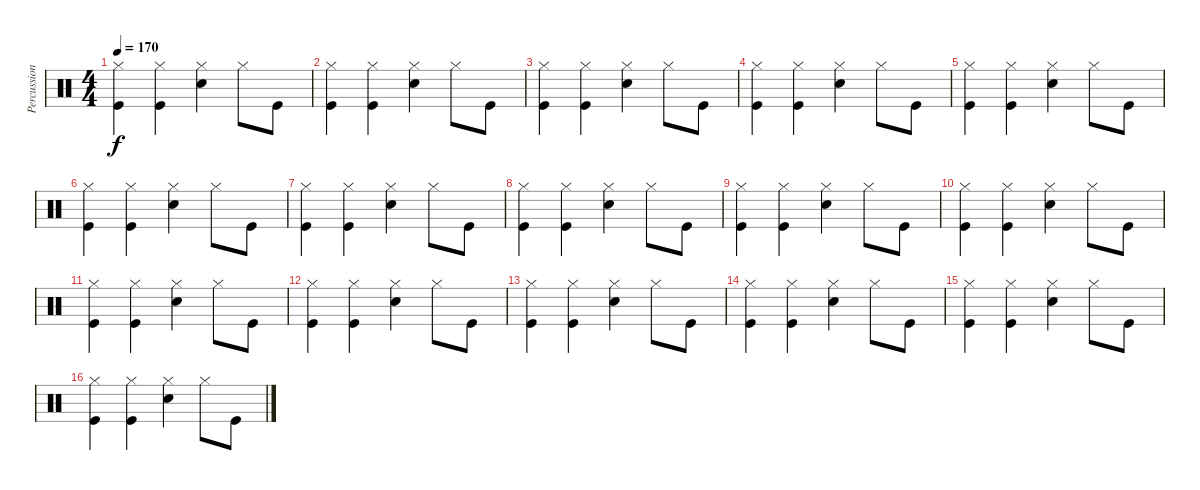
\track ("Percussion" "Percussion") {instrument percussion}
\staff {score}
\articulation defaults
\ts (4 4)
\tempo 170
\clef neutral
\ks c
("Hi-Hat (closed)" "Kick (hit)").4{dy f} ("Hi-Hat (closed)" "Kick (hit)").4 ("Hi-Hat (closed)" "Snare (hit) 2").4 "Hi-Hat (closed)".8 "Kick (hit)".8 |
("Hi-Hat (closed)" "Kick (hit)").4 ("Hi-Hat (closed)" "Kick (hit)").4 ("Hi-Hat (closed)" "Snare (hit) 2").4 "Hi-Hat (closed)".8 "Kick (hit)".8 |
("Hi-Hat (closed)" "Kick (hit)").4 ("Hi-Hat (closed)" "Kick (hit)").4 ("Hi-Hat (closed)" "Snare (hit) 2").4 "Hi-Hat (closed)".8 "Kick (hit)".8 |
("Hi-Hat (closed)" "Kick (hit)").4 ("Hi-Hat (closed)" "Kick (hit)").4 ("Hi-Hat (closed)" "Snare (hit) 2").4 "Hi-Hat (closed)".8 "Kick (hit)".8 |
("Hi-Hat (closed)" "Kick (hit)").4 ("Hi-Hat (closed)" "Kick (hit)").4 ("Hi-Hat (closed)" "Snare (hit) 2").4 "Hi-Hat (closed)".8 "Kick (hit)".8 |
("Hi-Hat (closed)" "Kick (hit)").4 ("Hi-Hat (closed)" "Kick (hit)").4 ("Hi-Hat (closed)" "Snare (hit) 2").4 "Hi-Hat (closed)".8 "Kick (hit)".8 |
("Hi-Hat (closed)" "Kick (hit)").4 ("Hi-Hat (closed)" "Kick (hit)").4 ("Hi-Hat (closed)" "Snare (hit) 2").4 "Hi-Hat (closed)".8 "Kick (hit)".8 |
("Hi-Hat (closed)" "Kick (hit)").4 ("Hi-Hat (closed)" "Kick (hit)").4 ("Hi-Hat (closed)" "Snare (hit) 2").4 "Hi-Hat (closed)".8 "Kick (hit)".8 |
("Hi-Hat (closed)" "Kick (hit)").4 ("Hi-Hat (closed)" "Kick (hit)").4 ("Hi-Hat (closed)" "Snare (hit) 2").4 "Hi-Hat (closed)".8 "Kick (hit)".8 |
("Hi-Hat (closed)" "Kick (hit)").4 ("Hi-Hat (closed)" "Kick (hit)").4 ("Hi-Hat (closed)" "Snare (hit) 2").4 "Hi-Hat (closed)".8 "Kick (hit)".8 |
("Hi-Hat (closed)" "Kick (hit)").4 ("Hi-Hat (closed)" "Kick (hit)").4 ("Hi-Hat (closed)" "Snare (hit) 2").4 "Hi-Hat (closed)".8 "Kick (hit)".8 |
("Hi-Hat (closed)" "Kick (hit)").4 ("Hi-Hat (closed)" "Kick (hit)").4 ("Hi-Hat (closed)" "Snare (hit) 2").4 "Hi-Hat (closed)".8 "Kick (hit)".8 |
("Hi-Hat (closed)" "Kick (hit)").4 ("Hi-Hat (closed)" "Kick (hit)").4 ("Hi-Hat (closed)" "Snare (hit) 2").4 "Hi-Hat (closed)".8 "Kick (hit)".8 |
("Hi-Hat (closed)" "Kick (hit)").4 ("Hi-Hat (closed)" "Kick (hit)").4 ("Hi-Hat (closed)" "Snare (hit) 2").4 "Hi-Hat (closed)".8 "Kick (hit)".8 |
("Hi-Hat (closed)" "Kick (hit)").4 ("Hi-Hat (closed)" "Kick (hit)").4 ("Hi-Hat (closed)" "Snare (hit) 2").4 "Hi-Hat (closed)".8 "Kick (hit)".8 |
("Hi-Hat (closed)" "Kick (hit)").4 ("Hi-Hat (closed)" "Kick (hit)").4 ("Hi-Hat (closed)" "Snare (hit) 2").4 "Hi-Hat (closed)".8 "Kick (hit)".8
